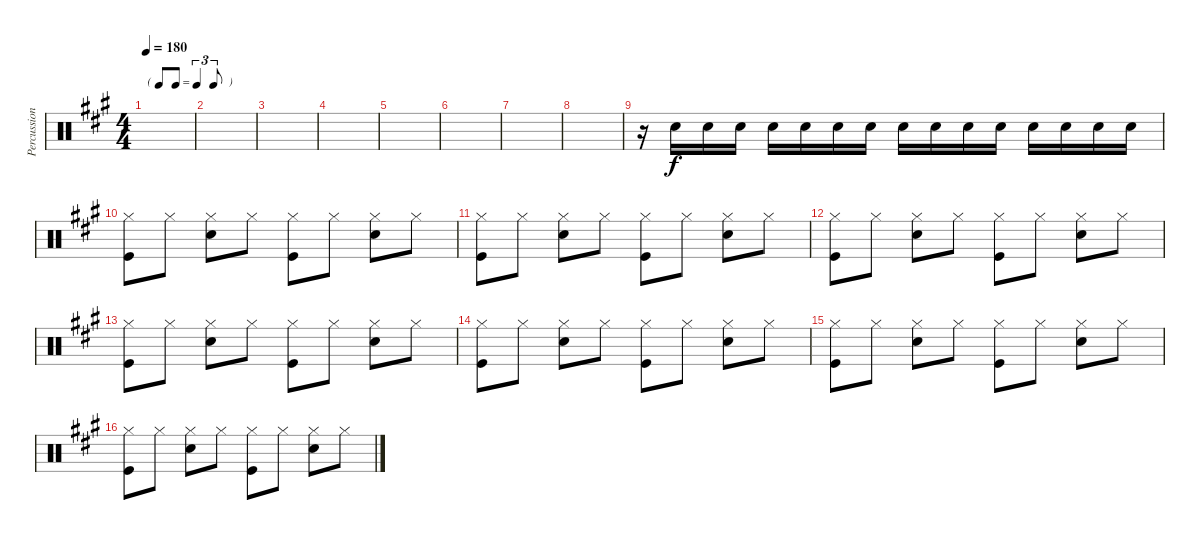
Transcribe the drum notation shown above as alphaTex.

\track ("Percussion" "Percussion") {instrument percussion}
\staff {score}
\articulation defaults
\ts (4 4)
\tf triplet8th
\tempo 180
\clef neutral
\ks a
|
|
|
|
|
|
|
|
r.16 "Snare (hit) 2".16 "Snare (hit) 2".16 "Snare (hit) 2".16 "Snare (hit) 2".16 "Snare (hit) 2".16 "Snare (hit) 2".16 "Snare (hit) 2".16 "Snare (hit) 2".16 "Snare (hit) 2".16 "Snare (hit) 2".16 "Snare (hit) 2".16 "Snare (hit) 2".16 "Snare (hit) 2".16 "Snare (hit) 2".16 "Snare (hit) 2".16 |
("Hi-Hat (closed)" "Kick (hit)").8 "Hi-Hat (closed)".8 ("Hi-Hat (closed)" "Snare (hit) 2").8 "Hi-Hat (closed)".8 ("Hi-Hat (closed)" "Kick (hit)").8 "Hi-Hat (closed)".8 ("Hi-Hat (closed)" "Snare (hit) 2").8 "Hi-Hat (closed)".8 |
("Hi-Hat (closed)" "Kick (hit)").8 "Hi-Hat (closed)".8 ("Hi-Hat (closed)" "Snare (hit) 2").8 "Hi-Hat (closed)".8 ("Hi-Hat (closed)" "Kick (hit)").8 "Hi-Hat (closed)".8 ("Hi-Hat (closed)" "Snare (hit) 2").8 "Hi-Hat (closed)".8 |
("Hi-Hat (closed)" "Kick (hit)").8 "Hi-Hat (closed)".8 ("Hi-Hat (closed)" "Snare (hit) 2").8 "Hi-Hat (closed)".8 ("Hi-Hat (closed)" "Kick (hit)").8 "Hi-Hat (closed)".8 ("Hi-Hat (closed)" "Snare (hit) 2").8 "Hi-Hat (closed)".8 |
("Hi-Hat (closed)" "Kick (hit)").8 "Hi-Hat (closed)".8 ("Hi-Hat (closed)" "Snare (hit) 2").8 "Hi-Hat (closed)".8 ("Hi-Hat (closed)" "Kick (hit)").8 "Hi-Hat (closed)".8 ("Hi-Hat (closed)" "Snare (hit) 2").8 "Hi-Hat (closed)".8 |
("Hi-Hat (closed)" "Kick (hit)").8 "Hi-Hat (closed)".8 ("Hi-Hat (closed)" "Snare (hit) 2").8 "Hi-Hat (closed)".8 ("Hi-Hat (closed)" "Kick (hit)").8 "Hi-Hat (closed)".8 ("Hi-Hat (closed)" "Snare (hit) 2").8 "Hi-Hat (closed)".8 |
("Hi-Hat (closed)" "Kick (hit)").8 "Hi-Hat (closed)".8 ("Hi-Hat (closed)" "Snare (hit) 2").8 "Hi-Hat (closed)".8 ("Hi-Hat (closed)" "Kick (hit)").8 "Hi-Hat (closed)".8 ("Hi-Hat (closed)" "Snare (hit) 2").8 "Hi-Hat (closed)".8 |
("Hi-Hat (closed)" "Kick (hit)").8 "Hi-Hat (closed)".8 ("Hi-Hat (closed)" "Snare (hit) 2").8 "Hi-Hat (closed)".8 ("Hi-Hat (closed)" "Kick (hit)").8 "Hi-Hat (closed)".8 ("Hi-Hat (closed)" "Snare (hit) 2").8 "Hi-Hat (closed)".8
